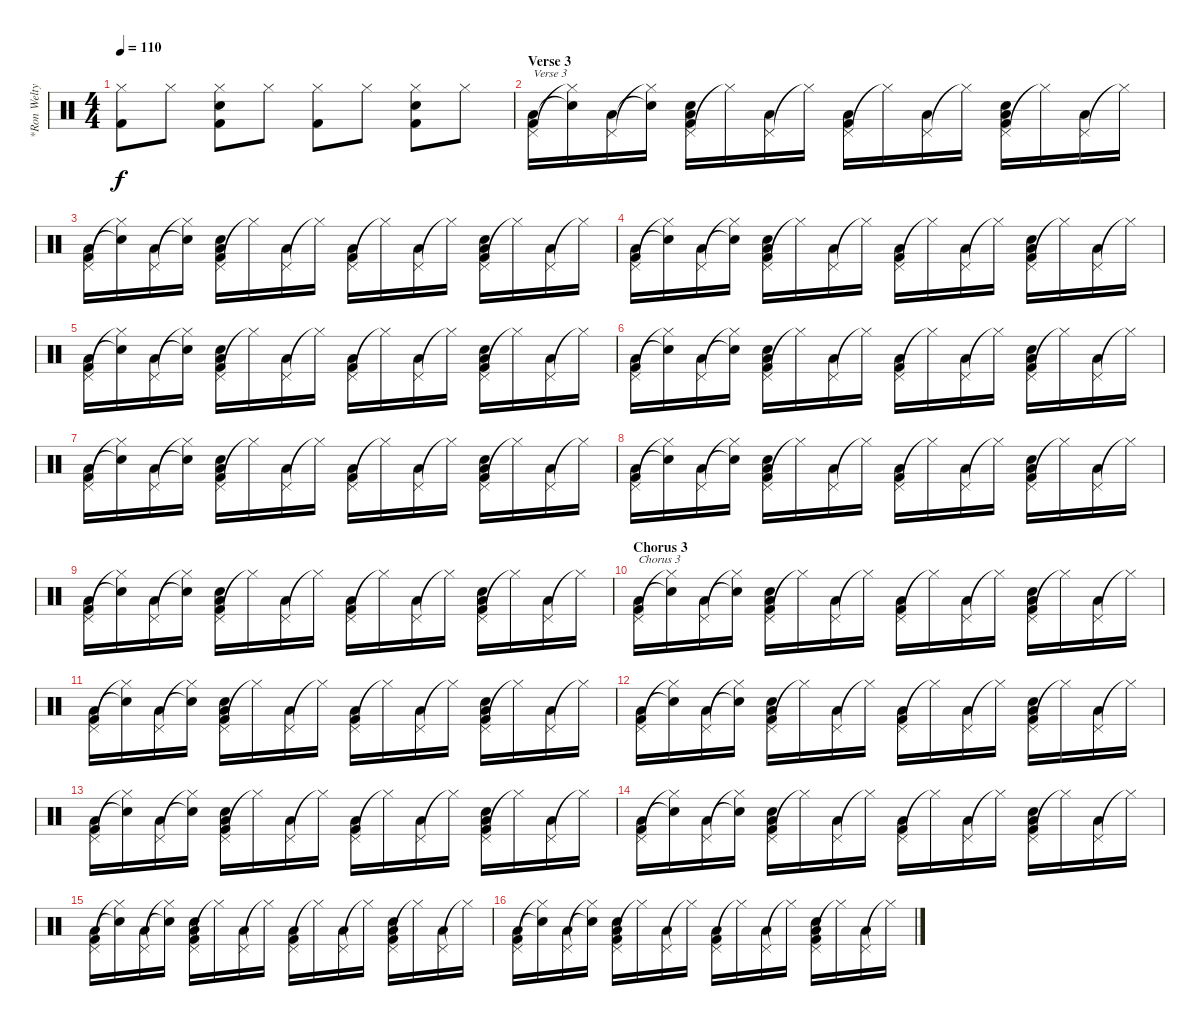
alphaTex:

\track ("*Ron Welty (Ex-drummer)" "*Ron Welty") {instrument percussion}
\staff {score}
\articulation defaults
\ts (4 4)
\tempo 110
\clef neutral
\ks c
("Hi-Hat (closed)" "Kick (hit) 2").8{dy f} "Hi-Hat (closed)".8 ("Hi-Hat (closed)" "Snare (hit) 2" "Kick (hit) 2").8 "Hi-Hat (closed)".8 ("Hi-Hat (closed)" "Kick (hit) 2").8 "Hi-Hat (closed)".8 ("Hi-Hat (closed)" "Snare (hit) 2" "Kick (hit) 2").8 "Hi-Hat (closed)".8 |
\section ("" "Verse 3")
("Pedal Hi-Hat (hit)" "Low Floor Tom (hit)" "Kick (hit) 2").16{txt "Verse 3"} ("Hi-Hat (closed)"{t} "Snare (hit)"{t}).16 ("Pedal Hi-Hat (hit)" "Low Floor Tom (hit)").16 ("Hi-Hat (closed)"{t} "Snare (hit)"{t}).16 ("Pedal Hi-Hat (hit)" "Snare (hit) 2" "Low Floor Tom (hit)" "Kick (hit) 2").16 "Hi-Hat (closed)"{t}.16 ("Pedal Hi-Hat (hit)" "Low Floor Tom (hit)").16 "Hi-Hat (closed)"{t}.16 ("Pedal Hi-Hat (hit)" "Low Floor Tom (hit)" "Kick (hit) 2").16 "Hi-Hat (closed)"{t}.16 ("Pedal Hi-Hat (hit)" "Low Floor Tom (hit)").16 "Hi-Hat (closed)"{t}.16 ("Pedal Hi-Hat (hit)" "Snare (hit) 2" "Low Floor Tom (hit)" "Kick (hit) 2").16 "Hi-Hat (closed)"{t}.16 ("Pedal Hi-Hat (hit)" "Low Floor Tom (hit)").16 "Hi-Hat (closed)"{t}.16 |
("Pedal Hi-Hat (hit)" "Low Floor Tom (hit)" "Kick (hit) 2").16 ("Hi-Hat (closed)"{t} "Snare (hit)"{t}).16 ("Pedal Hi-Hat (hit)" "Low Floor Tom (hit)").16 ("Hi-Hat (closed)"{t} "Snare (hit)"{t}).16 ("Pedal Hi-Hat (hit)" "Snare (hit) 2" "Low Floor Tom (hit)" "Kick (hit) 2").16 "Hi-Hat (closed)"{t}.16 ("Pedal Hi-Hat (hit)" "Low Floor Tom (hit)").16 "Hi-Hat (closed)"{t}.16 ("Pedal Hi-Hat (hit)" "Low Floor Tom (hit)" "Kick (hit) 2").16 "Hi-Hat (closed)"{t}.16 ("Pedal Hi-Hat (hit)" "Low Floor Tom (hit)").16 "Hi-Hat (closed)"{t}.16 ("Pedal Hi-Hat (hit)" "Snare (hit) 2" "Low Floor Tom (hit)" "Kick (hit) 2").16 "Hi-Hat (closed)"{t}.16 ("Pedal Hi-Hat (hit)" "Low Floor Tom (hit)").16 "Hi-Hat (closed)"{t}.16 |
("Pedal Hi-Hat (hit)" "Low Floor Tom (hit)" "Kick (hit) 2").16 ("Hi-Hat (closed)"{t} "Snare (hit)"{t}).16 ("Pedal Hi-Hat (hit)" "Low Floor Tom (hit)").16 ("Hi-Hat (closed)"{t} "Snare (hit)"{t}).16 ("Pedal Hi-Hat (hit)" "Snare (hit) 2" "Low Floor Tom (hit)" "Kick (hit) 2").16 "Hi-Hat (closed)"{t}.16 ("Pedal Hi-Hat (hit)" "Low Floor Tom (hit)").16 "Hi-Hat (closed)"{t}.16 ("Pedal Hi-Hat (hit)" "Low Floor Tom (hit)" "Kick (hit) 2").16 "Hi-Hat (closed)"{t}.16 ("Pedal Hi-Hat (hit)" "Low Floor Tom (hit)").16 "Hi-Hat (closed)"{t}.16 ("Pedal Hi-Hat (hit)" "Snare (hit) 2" "Low Floor Tom (hit)" "Kick (hit) 2").16 "Hi-Hat (closed)"{t}.16 ("Pedal Hi-Hat (hit)" "Low Floor Tom (hit)").16 "Hi-Hat (closed)"{t}.16 |
("Pedal Hi-Hat (hit)" "Low Floor Tom (hit)" "Kick (hit) 2").16 ("Hi-Hat (closed)"{t} "Snare (hit)"{t}).16 ("Pedal Hi-Hat (hit)" "Low Floor Tom (hit)").16 ("Hi-Hat (closed)"{t} "Snare (hit)"{t}).16 ("Pedal Hi-Hat (hit)" "Snare (hit) 2" "Low Floor Tom (hit)" "Kick (hit) 2").16 "Hi-Hat (closed)"{t}.16 ("Pedal Hi-Hat (hit)" "Low Floor Tom (hit)").16 "Hi-Hat (closed)"{t}.16 ("Pedal Hi-Hat (hit)" "Low Floor Tom (hit)" "Kick (hit) 2").16 "Hi-Hat (closed)"{t}.16 ("Pedal Hi-Hat (hit)" "Low Floor Tom (hit)").16 "Hi-Hat (closed)"{t}.16 ("Pedal Hi-Hat (hit)" "Snare (hit) 2" "Low Floor Tom (hit)" "Kick (hit) 2").16 "Hi-Hat (closed)"{t}.16 ("Pedal Hi-Hat (hit)" "Low Floor Tom (hit)").16 "Hi-Hat (closed)"{t}.16 |
("Pedal Hi-Hat (hit)" "Low Floor Tom (hit)" "Kick (hit) 2").16 ("Hi-Hat (closed)"{t} "Snare (hit)"{t}).16 ("Pedal Hi-Hat (hit)" "Low Floor Tom (hit)").16 ("Hi-Hat (closed)"{t} "Snare (hit)"{t}).16 ("Pedal Hi-Hat (hit)" "Snare (hit) 2" "Low Floor Tom (hit)" "Kick (hit) 2").16 "Hi-Hat (closed)"{t}.16 ("Pedal Hi-Hat (hit)" "Low Floor Tom (hit)").16 "Hi-Hat (closed)"{t}.16 ("Pedal Hi-Hat (hit)" "Low Floor Tom (hit)" "Kick (hit) 2").16 "Hi-Hat (closed)"{t}.16 ("Pedal Hi-Hat (hit)" "Low Floor Tom (hit)").16 "Hi-Hat (closed)"{t}.16 ("Pedal Hi-Hat (hit)" "Snare (hit) 2" "Low Floor Tom (hit)" "Kick (hit) 2").16 "Hi-Hat (closed)"{t}.16 ("Pedal Hi-Hat (hit)" "Low Floor Tom (hit)").16 "Hi-Hat (closed)"{t}.16 |
("Pedal Hi-Hat (hit)" "Low Floor Tom (hit)" "Kick (hit) 2").16 ("Hi-Hat (closed)"{t} "Snare (hit)"{t}).16 ("Pedal Hi-Hat (hit)" "Low Floor Tom (hit)").16 ("Hi-Hat (closed)"{t} "Snare (hit)"{t}).16 ("Pedal Hi-Hat (hit)" "Snare (hit) 2" "Low Floor Tom (hit)" "Kick (hit) 2").16 "Hi-Hat (closed)"{t}.16 ("Pedal Hi-Hat (hit)" "Low Floor Tom (hit)").16 "Hi-Hat (closed)"{t}.16 ("Pedal Hi-Hat (hit)" "Low Floor Tom (hit)" "Kick (hit) 2").16 "Hi-Hat (closed)"{t}.16 ("Pedal Hi-Hat (hit)" "Low Floor Tom (hit)").16 "Hi-Hat (closed)"{t}.16 ("Pedal Hi-Hat (hit)" "Snare (hit) 2" "Low Floor Tom (hit)" "Kick (hit) 2").16 "Hi-Hat (closed)"{t}.16 ("Pedal Hi-Hat (hit)" "Low Floor Tom (hit)").16 "Hi-Hat (closed)"{t}.16 |
("Pedal Hi-Hat (hit)" "Low Floor Tom (hit)" "Kick (hit) 2").16 ("Hi-Hat (closed)"{t} "Snare (hit)"{t}).16 ("Pedal Hi-Hat (hit)" "Low Floor Tom (hit)").16 ("Hi-Hat (closed)"{t} "Snare (hit)"{t}).16 ("Pedal Hi-Hat (hit)" "Snare (hit) 2" "Low Floor Tom (hit)" "Kick (hit) 2").16 "Hi-Hat (closed)"{t}.16 ("Pedal Hi-Hat (hit)" "Low Floor Tom (hit)").16 "Hi-Hat (closed)"{t}.16 ("Pedal Hi-Hat (hit)" "Low Floor Tom (hit)" "Kick (hit) 2").16 "Hi-Hat (closed)"{t}.16 ("Pedal Hi-Hat (hit)" "Low Floor Tom (hit)").16 "Hi-Hat (closed)"{t}.16 ("Pedal Hi-Hat (hit)" "Snare (hit) 2" "Low Floor Tom (hit)" "Kick (hit) 2").16 "Hi-Hat (closed)"{t}.16 ("Pedal Hi-Hat (hit)" "Low Floor Tom (hit)").16 "Hi-Hat (closed)"{t}.16 |
("Pedal Hi-Hat (hit)" "Low Floor Tom (hit)" "Kick (hit) 2").16 ("Hi-Hat (closed)"{t} "Snare (hit)"{t}).16 ("Pedal Hi-Hat (hit)" "Low Floor Tom (hit)").16 ("Hi-Hat (closed)"{t} "Snare (hit)"{t}).16 ("Pedal Hi-Hat (hit)" "Snare (hit) 2" "Low Floor Tom (hit)" "Kick (hit) 2").16 "Hi-Hat (closed)"{t}.16 ("Pedal Hi-Hat (hit)" "Low Floor Tom (hit)").16 "Hi-Hat (closed)"{t}.16 ("Pedal Hi-Hat (hit)" "Low Floor Tom (hit)" "Kick (hit) 2").16 "Hi-Hat (closed)"{t}.16 ("Pedal Hi-Hat (hit)" "Low Floor Tom (hit)").16 "Hi-Hat (closed)"{t}.16 ("Pedal Hi-Hat (hit)" "Snare (hit) 2" "Low Floor Tom (hit)" "Kick (hit) 2").16 "Hi-Hat (closed)"{t}.16 ("Pedal Hi-Hat (hit)" "Low Floor Tom (hit)").16 "Hi-Hat (closed)"{t}.16 |
\section ("" "Chorus 3")
("Pedal Hi-Hat (hit)" "Low Floor Tom (hit)" "Kick (hit) 2").16{txt "Chorus 3"} ("Hi-Hat (closed)"{t} "Snare (hit)"{t}).16 ("Pedal Hi-Hat (hit)" "Low Floor Tom (hit)").16 ("Hi-Hat (closed)"{t} "Snare (hit)"{t}).16 ("Pedal Hi-Hat (hit)" "Snare (hit) 2" "Low Floor Tom (hit)" "Kick (hit) 2").16 "Hi-Hat (closed)"{t}.16 ("Pedal Hi-Hat (hit)" "Low Floor Tom (hit)").16 "Hi-Hat (closed)"{t}.16 ("Pedal Hi-Hat (hit)" "Low Floor Tom (hit)" "Kick (hit) 2").16 "Hi-Hat (closed)"{t}.16 ("Pedal Hi-Hat (hit)" "Low Floor Tom (hit)").16 "Hi-Hat (closed)"{t}.16 ("Pedal Hi-Hat (hit)" "Snare (hit) 2" "Low Floor Tom (hit)" "Kick (hit) 2").16 "Hi-Hat (closed)"{t}.16 ("Pedal Hi-Hat (hit)" "Low Floor Tom (hit)").16 "Hi-Hat (closed)"{t}.16 |
("Pedal Hi-Hat (hit)" "Low Floor Tom (hit)" "Kick (hit) 2").16 ("Hi-Hat (closed)"{t} "Snare (hit)"{t}).16 ("Pedal Hi-Hat (hit)" "Low Floor Tom (hit)").16 ("Hi-Hat (closed)"{t} "Snare (hit)"{t}).16 ("Pedal Hi-Hat (hit)" "Snare (hit) 2" "Low Floor Tom (hit)" "Kick (hit) 2").16 "Hi-Hat (closed)"{t}.16 ("Pedal Hi-Hat (hit)" "Low Floor Tom (hit)").16 "Hi-Hat (closed)"{t}.16 ("Pedal Hi-Hat (hit)" "Low Floor Tom (hit)" "Kick (hit) 2").16 "Hi-Hat (closed)"{t}.16 ("Pedal Hi-Hat (hit)" "Low Floor Tom (hit)").16 "Hi-Hat (closed)"{t}.16 ("Pedal Hi-Hat (hit)" "Snare (hit) 2" "Low Floor Tom (hit)" "Kick (hit) 2").16 "Hi-Hat (closed)"{t}.16 ("Pedal Hi-Hat (hit)" "Low Floor Tom (hit)").16 "Hi-Hat (closed)"{t}.16 |
("Pedal Hi-Hat (hit)" "Low Floor Tom (hit)" "Kick (hit) 2").16 ("Hi-Hat (closed)"{t} "Snare (hit)"{t}).16 ("Pedal Hi-Hat (hit)" "Low Floor Tom (hit)").16 ("Hi-Hat (closed)"{t} "Snare (hit)"{t}).16 ("Pedal Hi-Hat (hit)" "Snare (hit) 2" "Low Floor Tom (hit)" "Kick (hit) 2").16 "Hi-Hat (closed)"{t}.16 ("Pedal Hi-Hat (hit)" "Low Floor Tom (hit)").16 "Hi-Hat (closed)"{t}.16 ("Pedal Hi-Hat (hit)" "Low Floor Tom (hit)" "Kick (hit) 2").16 "Hi-Hat (closed)"{t}.16 ("Pedal Hi-Hat (hit)" "Low Floor Tom (hit)").16 "Hi-Hat (closed)"{t}.16 ("Pedal Hi-Hat (hit)" "Snare (hit) 2" "Low Floor Tom (hit)" "Kick (hit) 2").16 "Hi-Hat (closed)"{t}.16 ("Pedal Hi-Hat (hit)" "Low Floor Tom (hit)").16 "Hi-Hat (closed)"{t}.16 |
("Pedal Hi-Hat (hit)" "Low Floor Tom (hit)" "Kick (hit) 2").16 ("Hi-Hat (closed)"{t} "Snare (hit)"{t}).16 ("Pedal Hi-Hat (hit)" "Low Floor Tom (hit)").16 ("Hi-Hat (closed)"{t} "Snare (hit)"{t}).16 ("Pedal Hi-Hat (hit)" "Snare (hit) 2" "Low Floor Tom (hit)" "Kick (hit) 2").16 "Hi-Hat (closed)"{t}.16 ("Pedal Hi-Hat (hit)" "Low Floor Tom (hit)").16 "Hi-Hat (closed)"{t}.16 ("Pedal Hi-Hat (hit)" "Low Floor Tom (hit)" "Kick (hit) 2").16 "Hi-Hat (closed)"{t}.16 ("Pedal Hi-Hat (hit)" "Low Floor Tom (hit)").16 "Hi-Hat (closed)"{t}.16 ("Pedal Hi-Hat (hit)" "Snare (hit) 2" "Low Floor Tom (hit)" "Kick (hit) 2").16 "Hi-Hat (closed)"{t}.16 ("Pedal Hi-Hat (hit)" "Low Floor Tom (hit)").16 "Hi-Hat (closed)"{t}.16 |
("Pedal Hi-Hat (hit)" "Low Floor Tom (hit)" "Kick (hit) 2").16 ("Hi-Hat (closed)"{t} "Snare (hit)"{t}).16 ("Pedal Hi-Hat (hit)" "Low Floor Tom (hit)").16 ("Hi-Hat (closed)"{t} "Snare (hit)"{t}).16 ("Pedal Hi-Hat (hit)" "Snare (hit) 2" "Low Floor Tom (hit)" "Kick (hit) 2").16 "Hi-Hat (closed)"{t}.16 ("Pedal Hi-Hat (hit)" "Low Floor Tom (hit)").16 "Hi-Hat (closed)"{t}.16 ("Pedal Hi-Hat (hit)" "Low Floor Tom (hit)" "Kick (hit) 2").16 "Hi-Hat (closed)"{t}.16 ("Pedal Hi-Hat (hit)" "Low Floor Tom (hit)").16 "Hi-Hat (closed)"{t}.16 ("Pedal Hi-Hat (hit)" "Snare (hit) 2" "Low Floor Tom (hit)" "Kick (hit) 2").16 "Hi-Hat (closed)"{t}.16 ("Pedal Hi-Hat (hit)" "Low Floor Tom (hit)").16 "Hi-Hat (closed)"{t}.16 |
("Pedal Hi-Hat (hit)" "Low Floor Tom (hit)" "Kick (hit) 2").16 ("Hi-Hat (closed)"{t} "Snare (hit)"{t}).16 ("Pedal Hi-Hat (hit)" "Low Floor Tom (hit)").16 ("Hi-Hat (closed)"{t} "Snare (hit)"{t}).16 ("Pedal Hi-Hat (hit)" "Snare (hit) 2" "Low Floor Tom (hit)" "Kick (hit) 2").16 "Hi-Hat (closed)"{t}.16 ("Pedal Hi-Hat (hit)" "Low Floor Tom (hit)").16 "Hi-Hat (closed)"{t}.16 ("Pedal Hi-Hat (hit)" "Low Floor Tom (hit)" "Kick (hit) 2").16 "Hi-Hat (closed)"{t}.16 ("Pedal Hi-Hat (hit)" "Low Floor Tom (hit)").16 "Hi-Hat (closed)"{t}.16 ("Pedal Hi-Hat (hit)" "Snare (hit) 2" "Low Floor Tom (hit)" "Kick (hit) 2").16 "Hi-Hat (closed)"{t}.16 ("Pedal Hi-Hat (hit)" "Low Floor Tom (hit)").16 "Hi-Hat (closed)"{t}.16 |
("Pedal Hi-Hat (hit)" "Low Floor Tom (hit)" "Kick (hit) 2").16 ("Hi-Hat (closed)"{t} "Snare (hit)"{t}).16 ("Pedal Hi-Hat (hit)" "Low Floor Tom (hit)").16 ("Hi-Hat (closed)"{t} "Snare (hit)"{t}).16 ("Pedal Hi-Hat (hit)" "Snare (hit) 2" "Low Floor Tom (hit)" "Kick (hit) 2").16 "Hi-Hat (closed)"{t}.16 ("Pedal Hi-Hat (hit)" "Low Floor Tom (hit)").16 "Hi-Hat (closed)"{t}.16 ("Pedal Hi-Hat (hit)" "Low Floor Tom (hit)" "Kick (hit) 2").16 "Hi-Hat (closed)"{t}.16 ("Pedal Hi-Hat (hit)" "Low Floor Tom (hit)").16 "Hi-Hat (closed)"{t}.16 ("Pedal Hi-Hat (hit)" "Snare (hit) 2" "Low Floor Tom (hit)" "Kick (hit) 2").16 "Hi-Hat (closed)"{t}.16 ("Pedal Hi-Hat (hit)" "Low Floor Tom (hit)").16 "Hi-Hat (closed)"{t}.16
